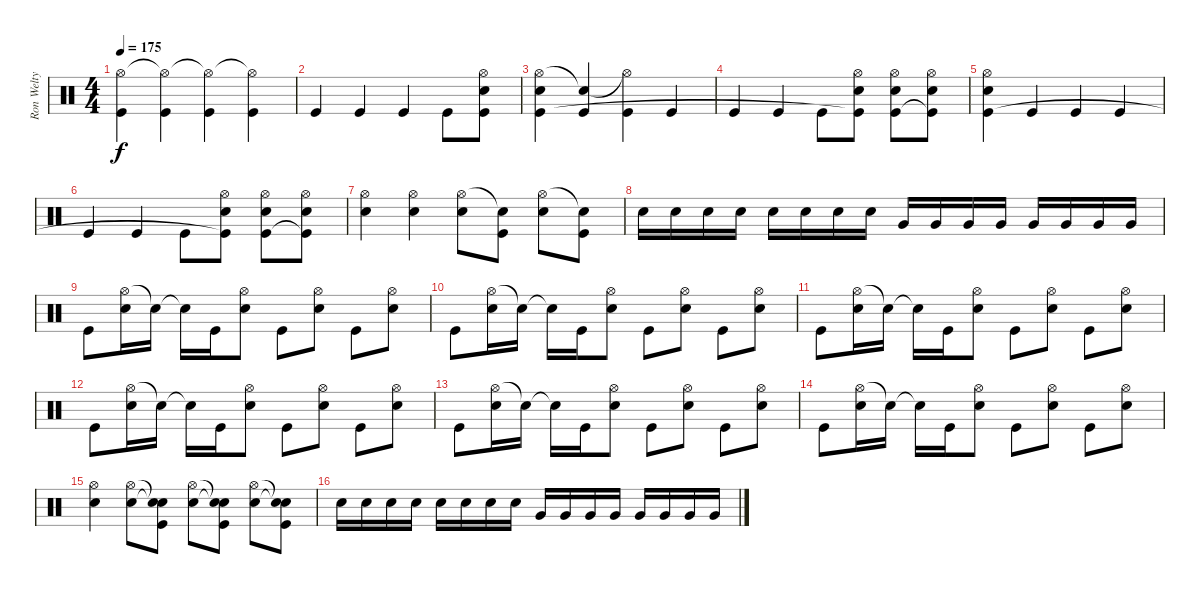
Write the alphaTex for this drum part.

\track ("Ron Welty" "Ron Welty") {instrument percussion}
\staff {score}
\articulation defaults
\ts (4 4)
\tempo 175
\clef neutral
\ks c
("Hi-Hat (open)" "Kick (hit)").4{dy f} ("Hi-Hat (open)"{t} "Kick (hit)").4 ("Hi-Hat (open)"{t} "Kick (hit)").4 ("Hi-Hat (open)"{t} "Kick (hit)").4 |
"Kick (hit)".4 "Kick (hit)".4 "Kick (hit)".4 "Kick (hit)".8 ("Hi-Hat (open)" "Electric Snare (hit)" "Kick (hit)").8 |
("Hi-Hat (open)" "Electric Snare (hit)" "Kick (hit)").4 ("Snare (hit)"{t} "Kick (hit)").4 ("Hi-Hat (open)"{t} "Kick (hit)").4 "Kick (hit)".4 |
"Kick (hit)".4 "Kick (hit)".4 "Kick (hit)".8 ("Hi-Hat (open)" "Electric Snare (hit)" "Kick (hit)"{t}).8 ("Hi-Hat (open)" "Electric Snare (hit)" "Kick (hit)").8 ("Hi-Hat (open)" "Electric Snare (hit)" "Kick (hit)"{t}).8 |
("Hi-Hat (open)" "Electric Snare (hit)" "Kick (hit)").4 "Kick (hit)".4 "Kick (hit)".4 "Kick (hit)".4 |
"Kick (hit)".4 "Kick (hit)".4 "Kick (hit)".8 ("Hi-Hat (open)" "Electric Snare (hit)" "Kick (hit)"{t}).8 ("Hi-Hat (open)" "Electric Snare (hit)" "Kick (hit)").8 ("Hi-Hat (open)" "Electric Snare (hit)" "Kick (hit)"{t}).8 |
("Hi-Hat (open)" "Electric Snare (hit)").4 ("Hi-Hat (open)" "Electric Snare (hit)").4 ("Hi-Hat (open)" "Electric Snare (hit)").8 ("Snare (hit)"{t} "Kick (hit)").8 ("Hi-Hat (open)" "Electric Snare (hit)").8 ("Snare (hit)"{t} "Kick (hit)").8 |
"Electric Snare (hit)".16 "Electric Snare (hit)".16 "Electric Snare (hit)".16 "Electric Snare (hit)".16 "Electric Snare (hit)".16 "Electric Snare (hit)".16 "Electric Snare (hit)".16 "Electric Snare (hit)".16 "Very Low Tom (hit)".16 "Very Low Tom (hit)".16 "Very Low Tom (hit)".16 "Very Low Tom (hit)".16 "Very Low Tom (hit)".16 "Very Low Tom (hit)".16 "Very Low Tom (hit)".16 "Very Low Tom (hit)".16 |
"Kick (hit)".8 ("Hi-Hat (open)" "Electric Snare (hit)").16 "Snare (hit)"{t}.16 "Snare (hit)"{t}.16 "Kick (hit)".16 ("Hi-Hat (open)" "Electric Snare (hit)").8 "Kick (hit)".8 ("Hi-Hat (open)" "Electric Snare (hit)").8 "Kick (hit)".8 ("Hi-Hat (open)" "Electric Snare (hit)").8 |
"Kick (hit)".8 ("Hi-Hat (open)" "Electric Snare (hit)").16 "Snare (hit)"{t}.16 "Snare (hit)"{t}.16 "Kick (hit)".16 ("Hi-Hat (open)" "Electric Snare (hit)").8 "Kick (hit)".8 ("Hi-Hat (open)" "Electric Snare (hit)").8 "Kick (hit)".8 ("Hi-Hat (open)" "Electric Snare (hit)").8 |
"Kick (hit)".8 ("Hi-Hat (open)" "Electric Snare (hit)").16 "Snare (hit)"{t}.16 "Snare (hit)"{t}.16 "Kick (hit)".16 ("Hi-Hat (open)" "Electric Snare (hit)").8 "Kick (hit)".8 ("Hi-Hat (open)" "Electric Snare (hit)").8 "Kick (hit)".8 ("Hi-Hat (open)" "Electric Snare (hit)").8 |
"Kick (hit)".8 ("Hi-Hat (open)" "Electric Snare (hit)").16 "Snare (hit)"{t}.16 "Snare (hit)"{t}.16 "Kick (hit)".16 ("Hi-Hat (open)" "Electric Snare (hit)").8 "Kick (hit)".8 ("Hi-Hat (open)" "Electric Snare (hit)").8 "Kick (hit)".8 ("Hi-Hat (open)" "Electric Snare (hit)").8 |
"Kick (hit)".8 ("Hi-Hat (open)" "Electric Snare (hit)").16 "Snare (hit)"{t}.16 "Snare (hit)"{t}.16 "Kick (hit)".16 ("Hi-Hat (open)" "Electric Snare (hit)").8 "Kick (hit)".8 ("Hi-Hat (open)" "Electric Snare (hit)").8 "Kick (hit)".8 ("Hi-Hat (open)" "Electric Snare (hit)").8 |
"Kick (hit)".8 ("Hi-Hat (open)" "Electric Snare (hit)").16 "Snare (hit)"{t}.16 "Snare (hit)"{t}.16 "Kick (hit)".16 ("Hi-Hat (open)" "Electric Snare (hit)").8 "Kick (hit)".8 ("Hi-Hat (open)" "Electric Snare (hit)").8 "Kick (hit)".8 ("Hi-Hat (open)" "Electric Snare (hit)").8 |
("Hi-Hat (open)" "Electric Snare (hit)").4 ("Hi-Hat (open)" "Electric Snare (hit)").8 ("Snare (hit)"{t} "Snare (hit)"{t} "Kick (hit)").8 ("Hi-Hat (open)" "Electric Snare (hit)").8 ("Snare (hit)"{t} "Snare (hit)"{t} "Kick (hit)").8 ("Hi-Hat (open)" "Electric Snare (hit)").8 ("Snare (hit)"{t} "Snare (hit)"{t} "Kick (hit)").8 |
"Electric Snare (hit)".16 "Electric Snare (hit)".16 "Electric Snare (hit)".16 "Electric Snare (hit)".16 "Electric Snare (hit)".16 "Electric Snare (hit)".16 "Electric Snare (hit)".16 "Electric Snare (hit)".16 "Very Low Tom (hit)".16 "Very Low Tom (hit)".16 "Very Low Tom (hit)".16 "Very Low Tom (hit)".16 "Very Low Tom (hit)".16 "Very Low Tom (hit)".16 "Very Low Tom (hit)".16 "Very Low Tom (hit)".16
